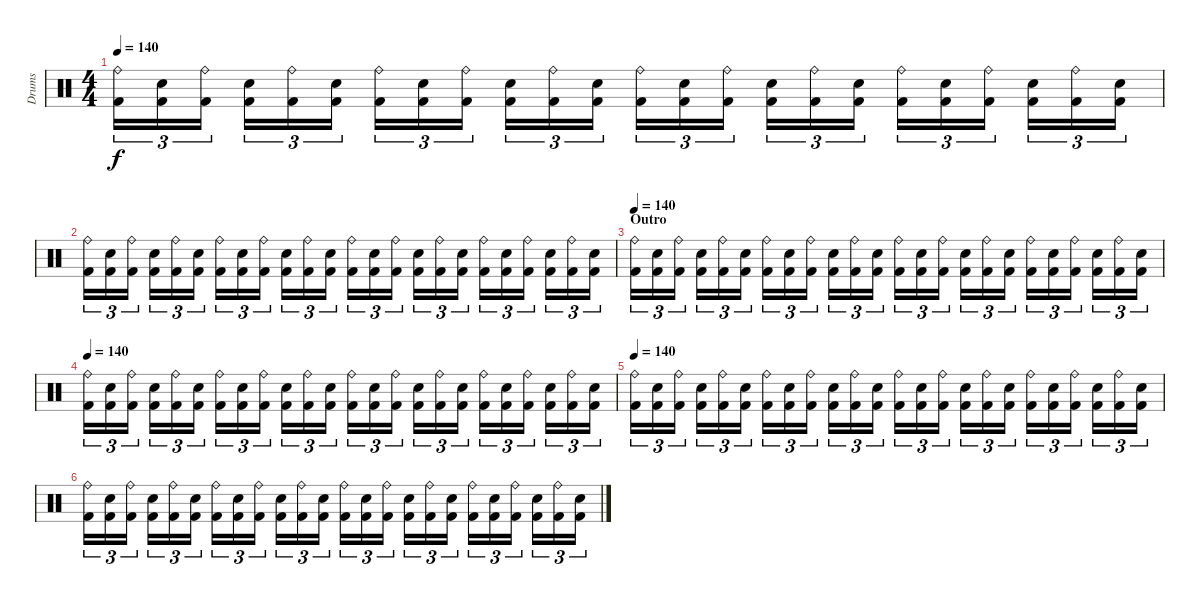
\track ("Drums" "Drums") {instrument percussion}
\staff {score}
\articulation defaults
\ts (4 4)
\tempo 140
\clef neutral
\ks c
("Ride (bell)" "Kick (hit) 2").16{tu (3 2) dy f} ("Electric Snare (hit)" "Kick (hit) 2").16{tu (3 2)} ("Ride (bell)" "Kick (hit) 2").16{tu (3 2)} ("Electric Snare (hit)" "Kick (hit) 2").16{tu (3 2)} ("Ride (bell)" "Kick (hit) 2").16{tu (3 2)} ("Electric Snare (hit)" "Kick (hit) 2").16{tu (3 2)} ("Ride (bell)" "Kick (hit) 2").16{tu (3 2)} ("Electric Snare (hit)" "Kick (hit) 2").16{tu (3 2)} ("Ride (bell)" "Kick (hit) 2").16{tu (3 2)} ("Electric Snare (hit)" "Kick (hit) 2").16{tu (3 2)} ("Ride (bell)" "Kick (hit) 2").16{tu (3 2)} ("Electric Snare (hit)" "Kick (hit) 2").16{tu (3 2)} ("Ride (bell)" "Kick (hit) 2").16{tu (3 2)} ("Electric Snare (hit)" "Kick (hit) 2").16{tu (3 2)} ("Ride (bell)" "Kick (hit) 2").16{tu (3 2)} ("Electric Snare (hit)" "Kick (hit) 2").16{tu (3 2)} ("Ride (bell)" "Kick (hit) 2").16{tu (3 2)} ("Electric Snare (hit)" "Kick (hit) 2").16{tu (3 2)} ("Ride (bell)" "Kick (hit) 2").16{tu (3 2)} ("Electric Snare (hit)" "Kick (hit) 2").16{tu (3 2)} ("Ride (bell)" "Kick (hit) 2").16{tu (3 2)} ("Electric Snare (hit)" "Kick (hit) 2").16{tu (3 2)} ("Ride (bell)" "Kick (hit) 2").16{tu (3 2)} ("Electric Snare (hit)" "Kick (hit) 2").16{tu (3 2)} |
("Ride (bell)" "Kick (hit) 2").16{tu (3 2)} ("Electric Snare (hit)" "Kick (hit) 2").16{tu (3 2)} ("Ride (bell)" "Kick (hit) 2").16{tu (3 2)} ("Electric Snare (hit)" "Kick (hit) 2").16{tu (3 2)} ("Ride (bell)" "Kick (hit) 2").16{tu (3 2)} ("Electric Snare (hit)" "Kick (hit) 2").16{tu (3 2)} ("Ride (bell)" "Kick (hit) 2").16{tu (3 2)} ("Electric Snare (hit)" "Kick (hit) 2").16{tu (3 2)} ("Ride (bell)" "Kick (hit) 2").16{tu (3 2)} ("Electric Snare (hit)" "Kick (hit) 2").16{tu (3 2)} ("Ride (bell)" "Kick (hit) 2").16{tu (3 2)} ("Electric Snare (hit)" "Kick (hit) 2").16{tu (3 2)} ("Ride (bell)" "Kick (hit) 2").16{tu (3 2)} ("Electric Snare (hit)" "Kick (hit) 2").16{tu (3 2)} ("Ride (bell)" "Kick (hit) 2").16{tu (3 2)} ("Electric Snare (hit)" "Kick (hit) 2").16{tu (3 2)} ("Ride (bell)" "Kick (hit) 2").16{tu (3 2)} ("Electric Snare (hit)" "Kick (hit) 2").16{tu (3 2)} ("Ride (bell)" "Kick (hit) 2").16{tu (3 2)} ("Electric Snare (hit)" "Kick (hit) 2").16{tu (3 2)} ("Ride (bell)" "Kick (hit) 2").16{tu (3 2)} ("Electric Snare (hit)" "Kick (hit) 2").16{tu (3 2)} ("Ride (bell)" "Kick (hit) 2").16{tu (3 2)} ("Electric Snare (hit)" "Kick (hit) 2").16{tu (3 2)} |
\section ("" "Outro")
\tempo 140
("Ride (bell)" "Kick (hit) 2").16{tu (3 2)} ("Electric Snare (hit)" "Kick (hit) 2").16{tu (3 2)} ("Ride (bell)" "Kick (hit) 2").16{tu (3 2)} ("Electric Snare (hit)" "Kick (hit) 2").16{tu (3 2)} ("Ride (bell)" "Kick (hit) 2").16{tu (3 2)} ("Electric Snare (hit)" "Kick (hit) 2").16{tu (3 2)} ("Ride (bell)" "Kick (hit) 2").16{tu (3 2)} ("Electric Snare (hit)" "Kick (hit) 2").16{tu (3 2)} ("Ride (bell)" "Kick (hit) 2").16{tu (3 2)} ("Electric Snare (hit)" "Kick (hit) 2").16{tu (3 2)} ("Ride (bell)" "Kick (hit) 2").16{tu (3 2)} ("Electric Snare (hit)" "Kick (hit) 2").16{tu (3 2)} ("Ride (bell)" "Kick (hit) 2").16{tu (3 2)} ("Electric Snare (hit)" "Kick (hit) 2").16{tu (3 2)} ("Ride (bell)" "Kick (hit) 2").16{tu (3 2)} ("Electric Snare (hit)" "Kick (hit) 2").16{tu (3 2)} ("Ride (bell)" "Kick (hit) 2").16{tu (3 2)} ("Electric Snare (hit)" "Kick (hit) 2").16{tu (3 2)} ("Ride (bell)" "Kick (hit) 2").16{tu (3 2)} ("Electric Snare (hit)" "Kick (hit) 2").16{tu (3 2)} ("Ride (bell)" "Kick (hit) 2").16{tu (3 2)} ("Electric Snare (hit)" "Kick (hit) 2").16{tu (3 2)} ("Ride (bell)" "Kick (hit) 2").16{tu (3 2)} ("Electric Snare (hit)" "Kick (hit) 2").16{tu (3 2)} |
\tempo 140
("Ride (bell)" "Kick (hit) 2").16{tu (3 2)} ("Electric Snare (hit)" "Kick (hit) 2").16{tu (3 2)} ("Ride (bell)" "Kick (hit) 2").16{tu (3 2)} ("Electric Snare (hit)" "Kick (hit) 2").16{tu (3 2)} ("Ride (bell)" "Kick (hit) 2").16{tu (3 2)} ("Electric Snare (hit)" "Kick (hit) 2").16{tu (3 2)} ("Ride (bell)" "Kick (hit) 2").16{tu (3 2)} ("Electric Snare (hit)" "Kick (hit) 2").16{tu (3 2)} ("Ride (bell)" "Kick (hit) 2").16{tu (3 2)} ("Electric Snare (hit)" "Kick (hit) 2").16{tu (3 2)} ("Ride (bell)" "Kick (hit) 2").16{tu (3 2)} ("Electric Snare (hit)" "Kick (hit) 2").16{tu (3 2)} ("Ride (bell)" "Kick (hit) 2").16{tu (3 2)} ("Electric Snare (hit)" "Kick (hit) 2").16{tu (3 2)} ("Ride (bell)" "Kick (hit) 2").16{tu (3 2)} ("Electric Snare (hit)" "Kick (hit) 2").16{tu (3 2)} ("Ride (bell)" "Kick (hit) 2").16{tu (3 2)} ("Electric Snare (hit)" "Kick (hit) 2").16{tu (3 2)} ("Ride (bell)" "Kick (hit) 2").16{tu (3 2)} ("Electric Snare (hit)" "Kick (hit) 2").16{tu (3 2)} ("Ride (bell)" "Kick (hit) 2").16{tu (3 2)} ("Electric Snare (hit)" "Kick (hit) 2").16{tu (3 2)} ("Ride (bell)" "Kick (hit) 2").16{tu (3 2)} ("Electric Snare (hit)" "Kick (hit) 2").16{tu (3 2)} |
\tempo 140
("Ride (bell)" "Kick (hit) 2").16{tu (3 2)} ("Electric Snare (hit)" "Kick (hit) 2").16{tu (3 2)} ("Ride (bell)" "Kick (hit) 2").16{tu (3 2)} ("Electric Snare (hit)" "Kick (hit) 2").16{tu (3 2)} ("Ride (bell)" "Kick (hit) 2").16{tu (3 2)} ("Electric Snare (hit)" "Kick (hit) 2").16{tu (3 2)} ("Ride (bell)" "Kick (hit) 2").16{tu (3 2)} ("Electric Snare (hit)" "Kick (hit) 2").16{tu (3 2)} ("Ride (bell)" "Kick (hit) 2").16{tu (3 2)} ("Electric Snare (hit)" "Kick (hit) 2").16{tu (3 2)} ("Ride (bell)" "Kick (hit) 2").16{tu (3 2)} ("Electric Snare (hit)" "Kick (hit) 2").16{tu (3 2)} ("Ride (bell)" "Kick (hit) 2").16{tu (3 2)} ("Electric Snare (hit)" "Kick (hit) 2").16{tu (3 2)} ("Ride (bell)" "Kick (hit) 2").16{tu (3 2)} ("Electric Snare (hit)" "Kick (hit) 2").16{tu (3 2)} ("Ride (bell)" "Kick (hit) 2").16{tu (3 2)} ("Electric Snare (hit)" "Kick (hit) 2").16{tu (3 2)} ("Ride (bell)" "Kick (hit) 2").16{tu (3 2)} ("Electric Snare (hit)" "Kick (hit) 2").16{tu (3 2)} ("Ride (bell)" "Kick (hit) 2").16{tu (3 2)} ("Electric Snare (hit)" "Kick (hit) 2").16{tu (3 2)} ("Ride (bell)" "Kick (hit) 2").16{tu (3 2)} ("Electric Snare (hit)" "Kick (hit) 2").16{tu (3 2)} |
("Ride (bell)" "Kick (hit) 2").16{tu (3 2)} ("Electric Snare (hit)" "Kick (hit) 2").16{tu (3 2)} ("Ride (bell)" "Kick (hit) 2").16{tu (3 2)} ("Electric Snare (hit)" "Kick (hit) 2").16{tu (3 2)} ("Ride (bell)" "Kick (hit) 2").16{tu (3 2)} ("Electric Snare (hit)" "Kick (hit) 2").16{tu (3 2)} ("Ride (bell)" "Kick (hit) 2").16{tu (3 2)} ("Electric Snare (hit)" "Kick (hit) 2").16{tu (3 2)} ("Ride (bell)" "Kick (hit) 2").16{tu (3 2)} ("Electric Snare (hit)" "Kick (hit) 2").16{tu (3 2)} ("Ride (bell)" "Kick (hit) 2").16{tu (3 2)} ("Electric Snare (hit)" "Kick (hit) 2").16{tu (3 2)} ("Ride (bell)" "Kick (hit) 2").16{tu (3 2)} ("Electric Snare (hit)" "Kick (hit) 2").16{tu (3 2)} ("Ride (bell)" "Kick (hit) 2").16{tu (3 2)} ("Electric Snare (hit)" "Kick (hit) 2").16{tu (3 2)} ("Ride (bell)" "Kick (hit) 2").16{tu (3 2)} ("Electric Snare (hit)" "Kick (hit) 2").16{tu (3 2)} ("Ride (bell)" "Kick (hit) 2").16{tu (3 2)} ("Electric Snare (hit)" "Kick (hit) 2").16{tu (3 2)} ("Ride (bell)" "Kick (hit) 2").16{tu (3 2)} ("Electric Snare (hit)" "Kick (hit) 2").16{tu (3 2)} ("Ride (bell)" "Kick (hit) 2").16{tu (3 2)} ("Electric Snare (hit)" "Kick (hit) 2").16{tu (3 2)}
